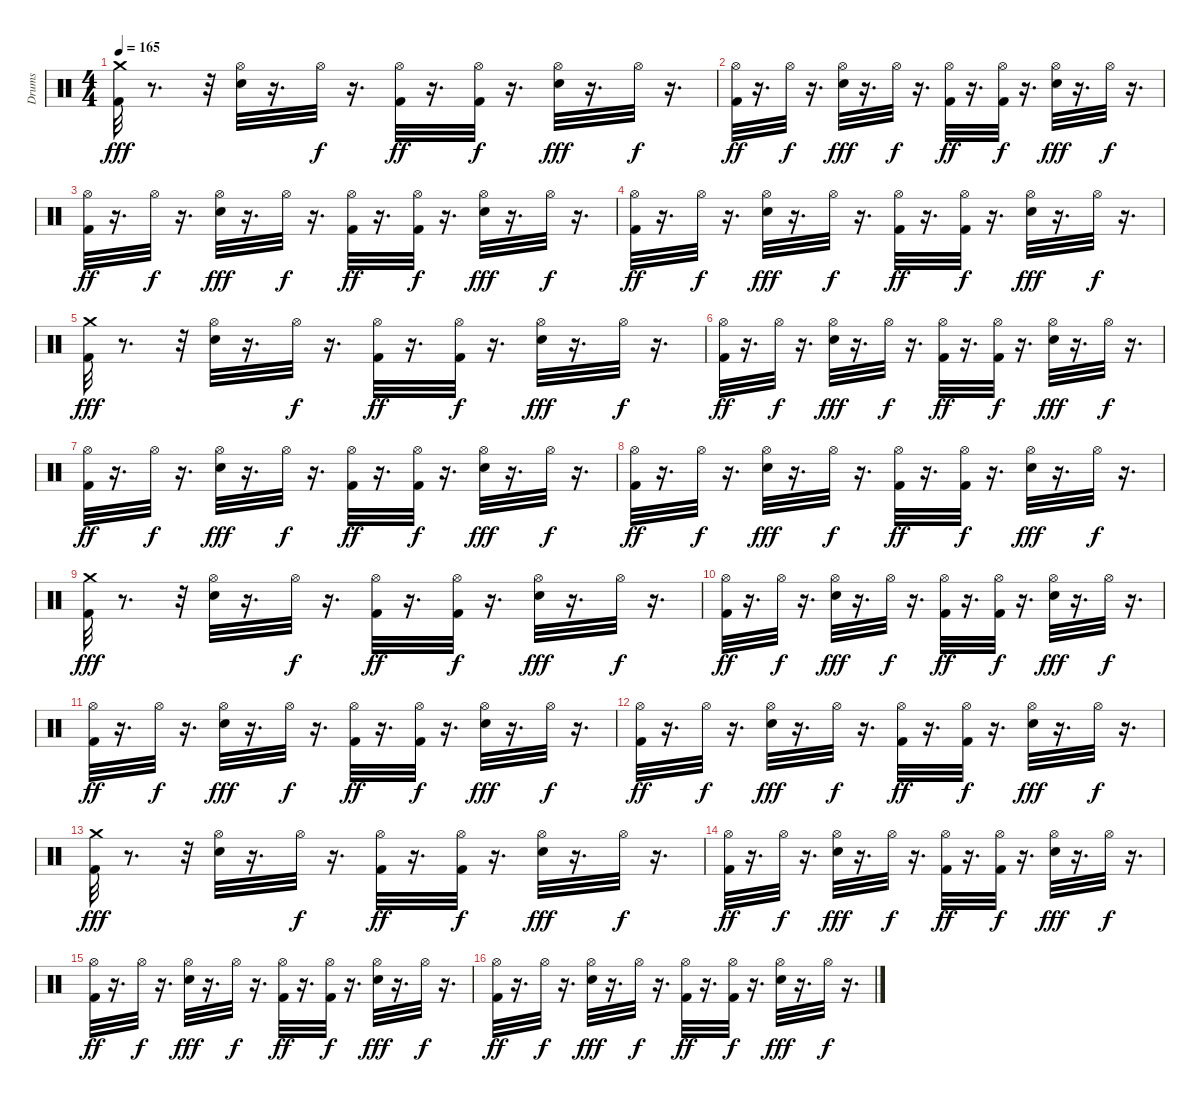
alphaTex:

\track ("Drums" "Drums") {instrument percussion}
\staff {score}
\articulation defaults
\ts (4 4)
\tempo 165
\clef neutral
\ks c
("Kick (hit) 2" "Crash medium (hit)").32{dy fff} r.8{d} r.32 ("Snare (hit) 2" "Hi-Hat (open)").32 r.16{d} "Hi-Hat (open)".32{dy f} r.16{d} ("Kick (hit) 2" "Hi-Hat (open)").32{dy ff} r.16{d} ("Kick (hit) 2" "Hi-Hat (open)").32{dy f} r.16{d} ("Snare (hit) 2" "Hi-Hat (open)").32{dy fff} r.16{d} "Hi-Hat (open)".32{dy f} r.16{d} |
("Kick (hit) 2" "Hi-Hat (open)").32{dy ff} r.16{d} "Hi-Hat (open)".32{dy f} r.16{d} ("Snare (hit) 2" "Hi-Hat (open)").32{dy fff} r.16{d} "Hi-Hat (open)".32{dy f} r.16{d} ("Kick (hit) 2" "Hi-Hat (open)").32{dy ff} r.16{d} ("Kick (hit) 2" "Hi-Hat (open)").32{dy f} r.16{d} ("Snare (hit) 2" "Hi-Hat (open)").32{dy fff} r.16{d} "Hi-Hat (open)".32{dy f} r.16{d} |
("Kick (hit) 2" "Hi-Hat (open)").32{dy ff} r.16{d} "Hi-Hat (open)".32{dy f} r.16{d} ("Snare (hit) 2" "Hi-Hat (open)").32{dy fff} r.16{d} "Hi-Hat (open)".32{dy f} r.16{d} ("Kick (hit) 2" "Hi-Hat (open)").32{dy ff} r.16{d} ("Kick (hit) 2" "Hi-Hat (open)").32{dy f} r.16{d} ("Snare (hit) 2" "Hi-Hat (open)").32{dy fff} r.16{d} "Hi-Hat (open)".32{dy f} r.16{d} |
("Kick (hit) 2" "Hi-Hat (open)").32{dy ff} r.16{d} "Hi-Hat (open)".32{dy f} r.16{d} ("Snare (hit) 2" "Hi-Hat (open)").32{dy fff} r.16{d} "Hi-Hat (open)".32{dy f} r.16{d} ("Kick (hit) 2" "Hi-Hat (open)").32{dy ff} r.16{d} ("Kick (hit) 2" "Hi-Hat (open)").32{dy f} r.16{d} ("Snare (hit) 2" "Hi-Hat (open)").32{dy fff} r.16{d} "Hi-Hat (open)".32{dy f} r.16{d} |
("Kick (hit) 2" "Crash medium (hit)").32{dy fff} r.8{d} r.32 ("Snare (hit) 2" "Hi-Hat (open)").32 r.16{d} "Hi-Hat (open)".32{dy f} r.16{d} ("Kick (hit) 2" "Hi-Hat (open)").32{dy ff} r.16{d} ("Kick (hit) 2" "Hi-Hat (open)").32{dy f} r.16{d} ("Snare (hit) 2" "Hi-Hat (open)").32{dy fff} r.16{d} "Hi-Hat (open)".32{dy f} r.16{d} |
("Kick (hit) 2" "Hi-Hat (open)").32{dy ff} r.16{d} "Hi-Hat (open)".32{dy f} r.16{d} ("Snare (hit) 2" "Hi-Hat (open)").32{dy fff} r.16{d} "Hi-Hat (open)".32{dy f} r.16{d} ("Kick (hit) 2" "Hi-Hat (open)").32{dy ff} r.16{d} ("Kick (hit) 2" "Hi-Hat (open)").32{dy f} r.16{d} ("Snare (hit) 2" "Hi-Hat (open)").32{dy fff} r.16{d} "Hi-Hat (open)".32{dy f} r.16{d} |
("Kick (hit) 2" "Hi-Hat (open)").32{dy ff} r.16{d} "Hi-Hat (open)".32{dy f} r.16{d} ("Snare (hit) 2" "Hi-Hat (open)").32{dy fff} r.16{d} "Hi-Hat (open)".32{dy f} r.16{d} ("Kick (hit) 2" "Hi-Hat (open)").32{dy ff} r.16{d} ("Kick (hit) 2" "Hi-Hat (open)").32{dy f} r.16{d} ("Snare (hit) 2" "Hi-Hat (open)").32{dy fff} r.16{d} "Hi-Hat (open)".32{dy f} r.16{d} |
("Kick (hit) 2" "Hi-Hat (open)").32{dy ff} r.16{d} "Hi-Hat (open)".32{dy f} r.16{d} ("Snare (hit) 2" "Hi-Hat (open)").32{dy fff} r.16{d} "Hi-Hat (open)".32{dy f} r.16{d} ("Kick (hit) 2" "Hi-Hat (open)").32{dy ff} r.16{d} ("Kick (hit) 2" "Hi-Hat (open)").32{dy f} r.16{d} ("Snare (hit) 2" "Hi-Hat (open)").32{dy fff} r.16{d} "Hi-Hat (open)".32{dy f} r.16{d} |
("Kick (hit) 2" "Crash medium (hit)").32{dy fff} r.8{d} r.32 ("Snare (hit) 2" "Hi-Hat (open)").32 r.16{d} "Hi-Hat (open)".32{dy f} r.16{d} ("Kick (hit) 2" "Hi-Hat (open)").32{dy ff} r.16{d} ("Kick (hit) 2" "Hi-Hat (open)").32{dy f} r.16{d} ("Snare (hit) 2" "Hi-Hat (open)").32{dy fff} r.16{d} "Hi-Hat (open)".32{dy f} r.16{d} |
("Kick (hit) 2" "Hi-Hat (open)").32{dy ff} r.16{d} "Hi-Hat (open)".32{dy f} r.16{d} ("Snare (hit) 2" "Hi-Hat (open)").32{dy fff} r.16{d} "Hi-Hat (open)".32{dy f} r.16{d} ("Kick (hit) 2" "Hi-Hat (open)").32{dy ff} r.16{d} ("Kick (hit) 2" "Hi-Hat (open)").32{dy f} r.16{d} ("Snare (hit) 2" "Hi-Hat (open)").32{dy fff} r.16{d} "Hi-Hat (open)".32{dy f} r.16{d} |
("Kick (hit) 2" "Hi-Hat (open)").32{dy ff} r.16{d} "Hi-Hat (open)".32{dy f} r.16{d} ("Snare (hit) 2" "Hi-Hat (open)").32{dy fff} r.16{d} "Hi-Hat (open)".32{dy f} r.16{d} ("Kick (hit) 2" "Hi-Hat (open)").32{dy ff} r.16{d} ("Kick (hit) 2" "Hi-Hat (open)").32{dy f} r.16{d} ("Snare (hit) 2" "Hi-Hat (open)").32{dy fff} r.16{d} "Hi-Hat (open)".32{dy f} r.16{d} |
("Kick (hit) 2" "Hi-Hat (open)").32{dy ff} r.16{d} "Hi-Hat (open)".32{dy f} r.16{d} ("Snare (hit) 2" "Hi-Hat (open)").32{dy fff} r.16{d} "Hi-Hat (open)".32{dy f} r.16{d} ("Kick (hit) 2" "Hi-Hat (open)").32{dy ff} r.16{d} ("Kick (hit) 2" "Hi-Hat (open)").32{dy f} r.16{d} ("Snare (hit) 2" "Hi-Hat (open)").32{dy fff} r.16{d} "Hi-Hat (open)".32{dy f} r.16{d} |
("Kick (hit) 2" "Crash medium (hit)").32{dy fff} r.8{d} r.32 ("Snare (hit) 2" "Hi-Hat (open)").32 r.16{d} "Hi-Hat (open)".32{dy f} r.16{d} ("Kick (hit) 2" "Hi-Hat (open)").32{dy ff} r.16{d} ("Kick (hit) 2" "Hi-Hat (open)").32{dy f} r.16{d} ("Snare (hit) 2" "Hi-Hat (open)").32{dy fff} r.16{d} "Hi-Hat (open)".32{dy f} r.16{d} |
("Kick (hit) 2" "Hi-Hat (open)").32{dy ff} r.16{d} "Hi-Hat (open)".32{dy f} r.16{d} ("Snare (hit) 2" "Hi-Hat (open)").32{dy fff} r.16{d} "Hi-Hat (open)".32{dy f} r.16{d} ("Kick (hit) 2" "Hi-Hat (open)").32{dy ff} r.16{d} ("Kick (hit) 2" "Hi-Hat (open)").32{dy f} r.16{d} ("Snare (hit) 2" "Hi-Hat (open)").32{dy fff} r.16{d} "Hi-Hat (open)".32{dy f} r.16{d} |
("Kick (hit) 2" "Hi-Hat (open)").32{dy ff} r.16{d} "Hi-Hat (open)".32{dy f} r.16{d} ("Snare (hit) 2" "Hi-Hat (open)").32{dy fff} r.16{d} "Hi-Hat (open)".32{dy f} r.16{d} ("Kick (hit) 2" "Hi-Hat (open)").32{dy ff} r.16{d} ("Kick (hit) 2" "Hi-Hat (open)").32{dy f} r.16{d} ("Snare (hit) 2" "Hi-Hat (open)").32{dy fff} r.16{d} "Hi-Hat (open)".32{dy f} r.16{d} |
("Kick (hit) 2" "Hi-Hat (open)").32{dy ff} r.16{d} "Hi-Hat (open)".32{dy f} r.16{d} ("Snare (hit) 2" "Hi-Hat (open)").32{dy fff} r.16{d} "Hi-Hat (open)".32{dy f} r.16{d} ("Kick (hit) 2" "Hi-Hat (open)").32{dy ff} r.16{d} ("Kick (hit) 2" "Hi-Hat (open)").32{dy f} r.16{d} ("Snare (hit) 2" "Hi-Hat (open)").32{dy fff} r.16{d} "Hi-Hat (open)".32{dy f} r.16{d}
